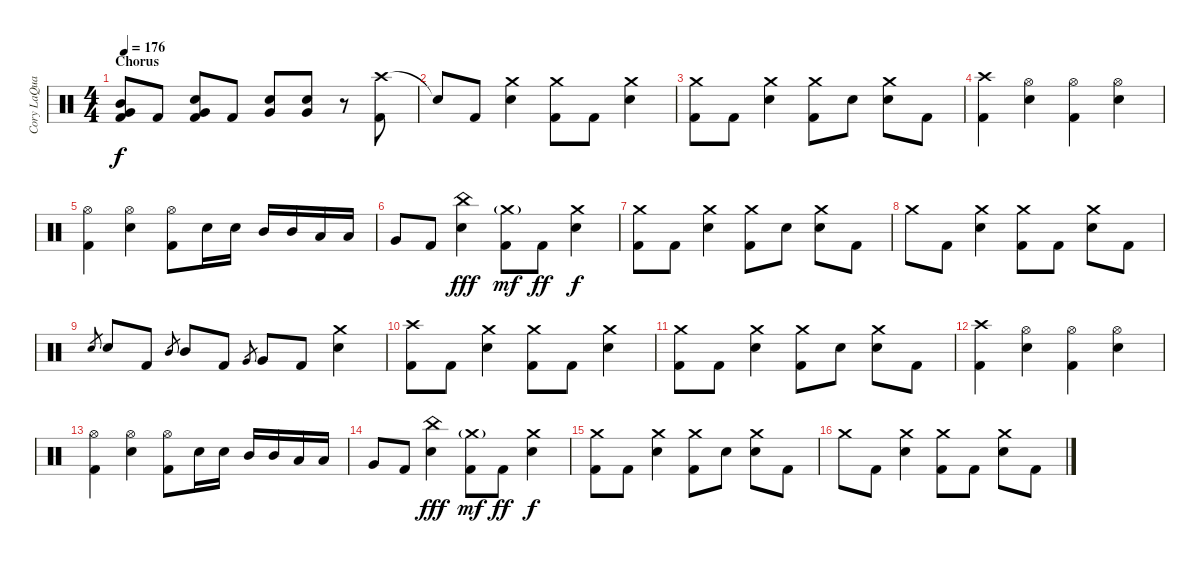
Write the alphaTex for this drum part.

\track ("Cory LaQuay" "Cory LaQua") {instrument percussion}
\staff {score}
\articulation defaults
\ts (4 4)
\section ("" "Chorus")
\tempo 176
\clef neutral
\ks c
("Mid Tom (hit)" "Very Low Tom (hit)" "Kick (hit) 2").8{dy f} "Kick (hit) 2".8 ("Very Low Tom (hit)" "Snare (hit) 2" "Kick (hit) 2").8 "Kick (hit) 2".8 ("Very Low Tom (hit)" "Snare (hit) 2").8 ("Very Low Tom (hit)" "Snare (hit) 2").8 r.8 ("Crash high (hit)" "Kick (hit) 2").8 |
"Snare (hit)"{t}.8 "Kick (hit) 2".8 ("Crash medium (hit)" "Snare (hit) 2").4 ("Crash medium (hit)" "Kick (hit) 2").8 "Kick (hit) 2".8 ("Crash medium (hit)" "Snare (hit) 2").4 |
("Crash medium (hit)" "Kick (hit) 2").8 "Kick (hit) 2".8 ("Crash medium (hit)" "Snare (hit) 2").4 ("Crash medium (hit)" "Kick (hit) 2").8 "Snare (hit) 2".8 ("Crash medium (hit)" "Snare (hit) 2").8 "Kick (hit) 2".8 |
("Crash high (hit)" "Kick (hit) 2").4 ("Hi-Hat (open)" "Snare (hit) 2").4 ("Hi-Hat (open)" "Kick (hit) 2").4 ("Hi-Hat (open)" "Snare (hit) 2").4 |
("Hi-Hat (open)" "Kick (hit) 2").4 ("Hi-Hat (open)" "Snare (hit) 2").4 ("Hi-Hat (open)" "Kick (hit) 2").8 "Snare (hit) 2".16 "Snare (hit) 2".16 "Mid Tom (hit)".16 "Mid Tom (hit)".16 "Low Tom (hit)".16 "Low Tom (hit)".16 |
"Very Low Tom (hit)".8 "Kick (hit) 2".8 ("China (hit)" "Snare (hit) 2").4{dy fff} ("Crash medium (hit)"{g} "Kick (hit) 2").8{dy mf} "Kick (hit) 2".8{dy ff} ("Crash medium (hit)" "Snare (hit) 2").4{dy f} |
("Crash medium (hit)" "Kick (hit) 2").8 "Kick (hit) 2".8 ("Crash medium (hit)" "Snare (hit) 2").4 ("Crash medium (hit)" "Kick (hit) 2").8 "Snare (hit) 2".8 ("Crash medium (hit)" "Snare (hit) 2").8 "Kick (hit) 2".8 |
"Crash medium (hit)".8 "Kick (hit) 2".8 ("Crash medium (hit)" "Snare (hit) 2").4 ("Crash medium (hit)" "Kick (hit) 2").8 "Kick (hit) 2".8 ("Crash medium (hit)" "Snare (hit) 2").8 "Kick (hit) 2".8 |
"Snare (hit) 2".8{gr} "Snare (hit) 2".8 "Kick (hit) 2".8 "Mid Tom (hit)".8{gr} "Mid Tom (hit)".8 "Kick (hit) 2".8 "Very Low Tom (hit)".8{gr} "Very Low Tom (hit)".8 "Kick (hit) 2".8 ("Crash medium (hit)" "Snare (hit) 2").4 |
("Crash high (hit)" "Kick (hit) 2").8 "Kick (hit) 2".8 ("Crash medium (hit)" "Snare (hit) 2").4 ("Crash medium (hit)" "Kick (hit) 2").8 "Kick (hit) 2".8 ("Crash medium (hit)" "Snare (hit) 2").4 |
("Crash medium (hit)" "Kick (hit) 2").8 "Kick (hit) 2".8 ("Crash medium (hit)" "Snare (hit) 2").4 ("Crash medium (hit)" "Kick (hit) 2").8 "Snare (hit) 2".8 ("Crash medium (hit)" "Snare (hit) 2").8 "Kick (hit) 2".8 |
("Crash high (hit)" "Kick (hit) 2").4 ("Hi-Hat (open)" "Snare (hit) 2").4 ("Hi-Hat (open)" "Kick (hit) 2").4 ("Hi-Hat (open)" "Snare (hit) 2").4 |
("Hi-Hat (open)" "Kick (hit) 2").4 ("Hi-Hat (open)" "Snare (hit) 2").4 ("Hi-Hat (open)" "Kick (hit) 2").8 "Snare (hit) 2".16 "Snare (hit) 2".16 "Mid Tom (hit)".16 "Mid Tom (hit)".16 "Low Tom (hit)".16 "Low Tom (hit)".16 |
"Very Low Tom (hit)".8 "Kick (hit) 2".8 ("China (hit)" "Snare (hit) 2").4{dy fff} ("Crash medium (hit)"{g} "Kick (hit) 2").8{dy mf} "Kick (hit) 2".8{dy ff} ("Crash medium (hit)" "Snare (hit) 2").4{dy f} |
("Crash medium (hit)" "Kick (hit) 2").8 "Kick (hit) 2".8 ("Crash medium (hit)" "Snare (hit) 2").4 ("Crash medium (hit)" "Kick (hit) 2").8 "Snare (hit) 2".8 ("Crash medium (hit)" "Snare (hit) 2").8 "Kick (hit) 2".8 |
"Crash medium (hit)".8 "Kick (hit) 2".8 ("Crash medium (hit)" "Snare (hit) 2").4 ("Crash medium (hit)" "Kick (hit) 2").8 "Kick (hit) 2".8 ("Crash medium (hit)" "Snare (hit) 2").8 "Kick (hit) 2".8
